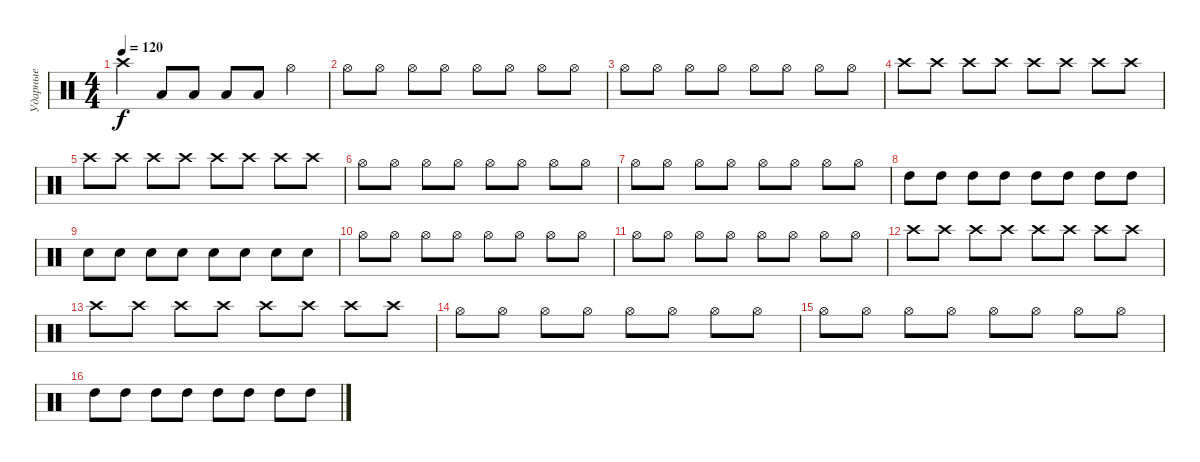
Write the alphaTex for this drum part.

\track ("Ударные" "Ударные") {instrument percussion}
\staff {score}
\articulation defaults
\ts (4 4)
\tempo 120
\clef neutral
\ks c "Crash high (hit)".4{dy f} "Low Floor Tom (hit)".8 "Low Floor Tom (hit)".8 "Low Floor Tom (hit)".8 "Low Floor Tom (hit)".8 "Hi-Hat (open)".4
|
"Hi-Hat (open)".8 "Hi-Hat (open)".8 "Hi-Hat (open)".8 "Hi-Hat (open)".8 "Hi-Hat (open)".8 "Hi-Hat (open)".8 "Hi-Hat (open)".8 "Hi-Hat (open)".8 |
"Hi-Hat (open)".8 "Hi-Hat (open)".8 "Hi-Hat (open)".8 "Hi-Hat (open)".8 "Hi-Hat (open)".8 "Hi-Hat (open)".8 "Hi-Hat (open)".8 "Hi-Hat (open)".8 |
"Crash high (hit)".8 "Crash high (hit)".8 "Crash high (hit)".8 "Crash high (hit)".8 "Crash high (hit)".8 "Crash high (hit)".8 "Crash high (hit)".8 "Crash high (hit)".8 |
"Crash high (hit)".8 "Crash high (hit)".8 "Crash high (hit)".8 "Crash high (hit)".8 "Crash high (hit)".8 "Crash high (hit)".8 "Crash high (hit)".8 "Crash high (hit)".8 |
"Hi-Hat (open)".8 "Hi-Hat (open)".8 "Hi-Hat (open)".8 "Hi-Hat (open)".8 "Hi-Hat (open)".8 "Hi-Hat (open)".8 "Hi-Hat (open)".8 "Hi-Hat (open)".8 |
"Hi-Hat (open)".8 "Hi-Hat (open)".8 "Hi-Hat (open)".8 "Hi-Hat (open)".8 "Hi-Hat (open)".8 "Hi-Hat (open)".8 "Hi-Hat (open)".8 "Hi-Hat (open)".8 |
"High Tom (hit)".8 "High Tom (hit)".8 "High Tom (hit)".8 "High Tom (hit)".8 "High Tom (hit)".8 "High Tom (hit)".8 "High Tom (hit)".8 "High Tom (hit)".8 |
"Electric Snare (hit)".8 "Electric Snare (hit)".8 "Electric Snare (hit)".8 "Electric Snare (hit)".8 "Electric Snare (hit)".8 "Electric Snare (hit)".8 "Electric Snare (hit)".8 "Electric Snare (hit)".8 |
"Hi-Hat (open)".8 "Hi-Hat (open)".8 "Hi-Hat (open)".8 "Hi-Hat (open)".8 "Hi-Hat (open)".8 "Hi-Hat (open)".8 "Hi-Hat (open)".8 "Hi-Hat (open)".8 |
"Hi-Hat (open)".8 "Hi-Hat (open)".8 "Hi-Hat (open)".8 "Hi-Hat (open)".8 "Hi-Hat (open)".8 "Hi-Hat (open)".8 "Hi-Hat (open)".8 "Hi-Hat (open)".8 |
"Crash high (hit)".8 "Crash high (hit)".8 "Crash high (hit)".8 "Crash high (hit)".8 "Crash high (hit)".8 "Crash high (hit)".8 "Crash high (hit)".8 "Crash high (hit)".8 |
"Crash high (hit)".8 "Crash high (hit)".8 "Crash high (hit)".8 "Crash high (hit)".8 "Crash high (hit)".8 "Crash high (hit)".8 "Crash high (hit)".8 "Crash high (hit)".8 |
"Hi-Hat (open)".8 "Hi-Hat (open)".8 "Hi-Hat (open)".8 "Hi-Hat (open)".8 "Hi-Hat (open)".8 "Hi-Hat (open)".8 "Hi-Hat (open)".8 "Hi-Hat (open)".8 |
"Hi-Hat (open)".8 "Hi-Hat (open)".8 "Hi-Hat (open)".8 "Hi-Hat (open)".8 "Hi-Hat (open)".8 "Hi-Hat (open)".8 "Hi-Hat (open)".8 "Hi-Hat (open)".8 |
"High Tom (hit)".8 "High Tom (hit)".8 "High Tom (hit)".8 "High Tom (hit)".8 "High Tom (hit)".8 "High Tom (hit)".8 "High Tom (hit)".8 "High Tom (hit)".8
